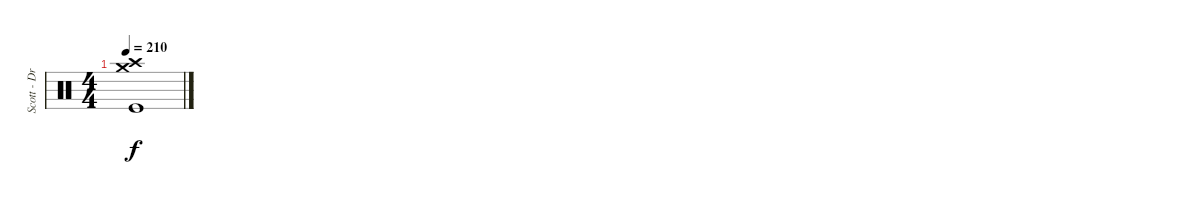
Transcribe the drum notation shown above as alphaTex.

\track ("Scott - Drums" "Scott - Dr") {instrument percussion}
\staff {score}
\articulation defaults
\ts (4 4)
\tempo 210
\clef neutral
\ks c
("Crash high (hit)" "Crash medium (hit)" "Kick (hit)").1{dy f}
